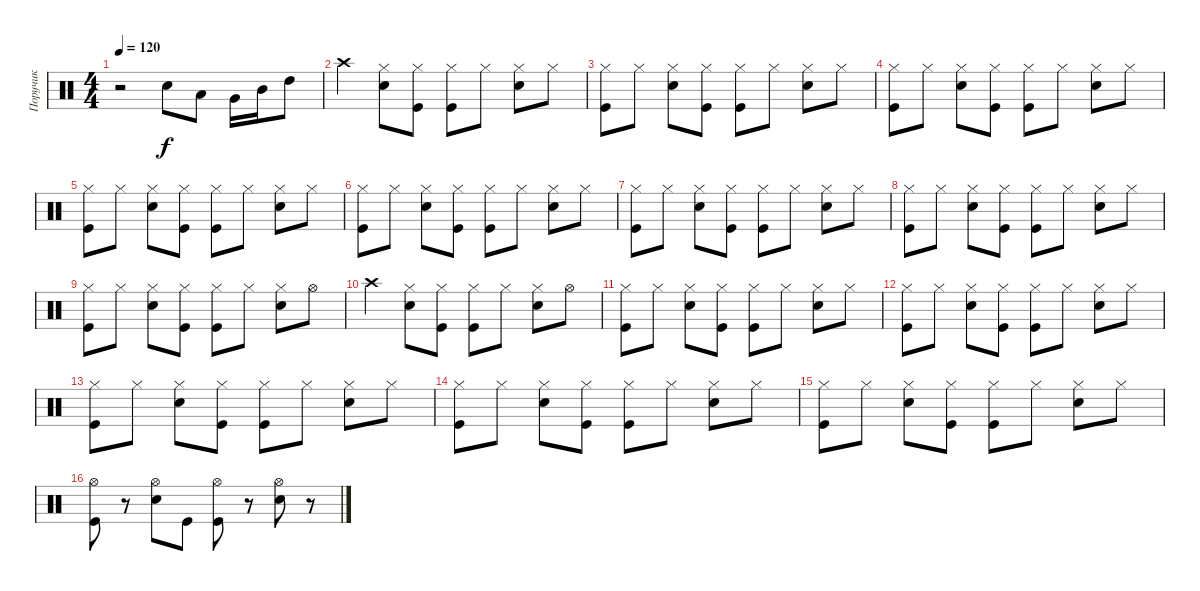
\track ("Поручик" "Поручик") {instrument percussion}
\staff {score}
\articulation defaults
\ts (4 4)
\tempo 120
\clef neutral
\ks c
r.2{dy f} "Electric Snare (hit)".8 "Low Tom (hit)".8 "Very Low Tom (hit)".16 "Mid Tom (hit)".16 "High Tom (hit)".8 |
"Crash high (hit)".4 ("Hi-Hat (closed)" "Snare (hit) 2").8 ("Hi-Hat (closed)" "Kick (hit)").8 ("Hi-Hat (closed)" "Kick (hit)").8 "Hi-Hat (closed)".8 ("Hi-Hat (closed)" "Snare (hit) 2").8 "Hi-Hat (closed)".8 |
("Hi-Hat (closed)" "Kick (hit)").8 "Hi-Hat (closed)".8 ("Hi-Hat (closed)" "Snare (hit) 2").8 ("Hi-Hat (closed)" "Kick (hit)").8 ("Hi-Hat (closed)" "Kick (hit)").8 "Hi-Hat (closed)".8 ("Hi-Hat (closed)" "Snare (hit) 2").8 "Hi-Hat (closed)".8 |
("Hi-Hat (closed)" "Kick (hit)").8 "Hi-Hat (closed)".8 ("Hi-Hat (closed)" "Snare (hit) 2").8 ("Hi-Hat (closed)" "Kick (hit)").8 ("Hi-Hat (closed)" "Kick (hit)").8 "Hi-Hat (closed)".8 ("Hi-Hat (closed)" "Snare (hit) 2").8 "Hi-Hat (closed)".8 |
("Hi-Hat (closed)" "Kick (hit)").8 "Hi-Hat (closed)".8 ("Hi-Hat (closed)" "Snare (hit) 2").8 ("Hi-Hat (closed)" "Kick (hit)").8 ("Hi-Hat (closed)" "Kick (hit)").8 "Hi-Hat (closed)".8 ("Hi-Hat (closed)" "Snare (hit) 2").8 "Hi-Hat (closed)".8 |
("Hi-Hat (closed)" "Kick (hit)").8 "Hi-Hat (closed)".8 ("Hi-Hat (closed)" "Snare (hit) 2").8 ("Hi-Hat (closed)" "Kick (hit)").8 ("Hi-Hat (closed)" "Kick (hit)").8 "Hi-Hat (closed)".8 ("Hi-Hat (closed)" "Snare (hit) 2").8 "Hi-Hat (closed)".8 |
("Hi-Hat (closed)" "Kick (hit)").8 "Hi-Hat (closed)".8 ("Hi-Hat (closed)" "Snare (hit) 2").8 ("Hi-Hat (closed)" "Kick (hit)").8 ("Hi-Hat (closed)" "Kick (hit)").8 "Hi-Hat (closed)".8 ("Hi-Hat (closed)" "Snare (hit) 2").8 "Hi-Hat (closed)".8 |
("Hi-Hat (closed)" "Kick (hit)").8 "Hi-Hat (closed)".8 ("Hi-Hat (closed)" "Snare (hit) 2").8 ("Hi-Hat (closed)" "Kick (hit)").8 ("Hi-Hat (closed)" "Kick (hit)").8 "Hi-Hat (closed)".8 ("Hi-Hat (closed)" "Snare (hit) 2").8 "Hi-Hat (closed)".8 |
("Hi-Hat (closed)" "Kick (hit)").8 "Hi-Hat (closed)".8 ("Hi-Hat (closed)" "Snare (hit) 2").8 ("Hi-Hat (closed)" "Kick (hit)").8 ("Hi-Hat (closed)" "Kick (hit)").8 "Hi-Hat (closed)".8 ("Hi-Hat (closed)" "Snare (hit) 2").8 "Hi-Hat (open)".8 |
"Crash high (hit)".4 ("Hi-Hat (closed)" "Snare (hit) 2").8 ("Hi-Hat (closed)" "Kick (hit)").8 ("Hi-Hat (closed)" "Kick (hit)").8 "Hi-Hat (closed)".8 ("Hi-Hat (closed)" "Snare (hit) 2").8 "Hi-Hat (open)".8 |
("Hi-Hat (closed)" "Kick (hit)").8 "Hi-Hat (closed)".8 ("Hi-Hat (closed)" "Snare (hit) 2").8 ("Hi-Hat (closed)" "Kick (hit)").8 ("Hi-Hat (closed)" "Kick (hit)").8 "Hi-Hat (closed)".8 ("Hi-Hat (closed)" "Snare (hit) 2").8 "Hi-Hat (closed)".8 |
("Hi-Hat (closed)" "Kick (hit)").8 "Hi-Hat (closed)".8 ("Hi-Hat (closed)" "Snare (hit) 2").8 ("Hi-Hat (closed)" "Kick (hit)").8 ("Hi-Hat (closed)" "Kick (hit)").8 "Hi-Hat (closed)".8 ("Hi-Hat (closed)" "Snare (hit) 2").8 "Hi-Hat (closed)".8 |
("Hi-Hat (closed)" "Kick (hit)").8 "Hi-Hat (closed)".8 ("Hi-Hat (closed)" "Snare (hit) 2").8 ("Hi-Hat (closed)" "Kick (hit)").8 ("Hi-Hat (closed)" "Kick (hit)").8 "Hi-Hat (closed)".8 ("Hi-Hat (closed)" "Snare (hit) 2").8 "Hi-Hat (closed)".8 |
("Hi-Hat (closed)" "Kick (hit)").8 "Hi-Hat (closed)".8 ("Hi-Hat (closed)" "Snare (hit) 2").8 ("Hi-Hat (closed)" "Kick (hit)").8 ("Hi-Hat (closed)" "Kick (hit)").8 "Hi-Hat (closed)".8 ("Hi-Hat (closed)" "Snare (hit) 2").8 "Hi-Hat (closed)".8 |
("Hi-Hat (closed)" "Kick (hit)").8 "Hi-Hat (closed)".8 ("Hi-Hat (closed)" "Snare (hit) 2").8 ("Hi-Hat (closed)" "Kick (hit)").8 ("Hi-Hat (closed)" "Kick (hit)").8 "Hi-Hat (closed)".8 ("Hi-Hat (closed)" "Snare (hit) 2").8 "Hi-Hat (closed)".8 |
("Hi-Hat (open)" "Kick (hit)").8 r.8 ("Hi-Hat (open)" "Snare (hit) 2").8 "Kick (hit)".8 ("Hi-Hat (open)" "Kick (hit)").8 r.8 ("Hi-Hat (open)" "Snare (hit) 2").8 r.8
